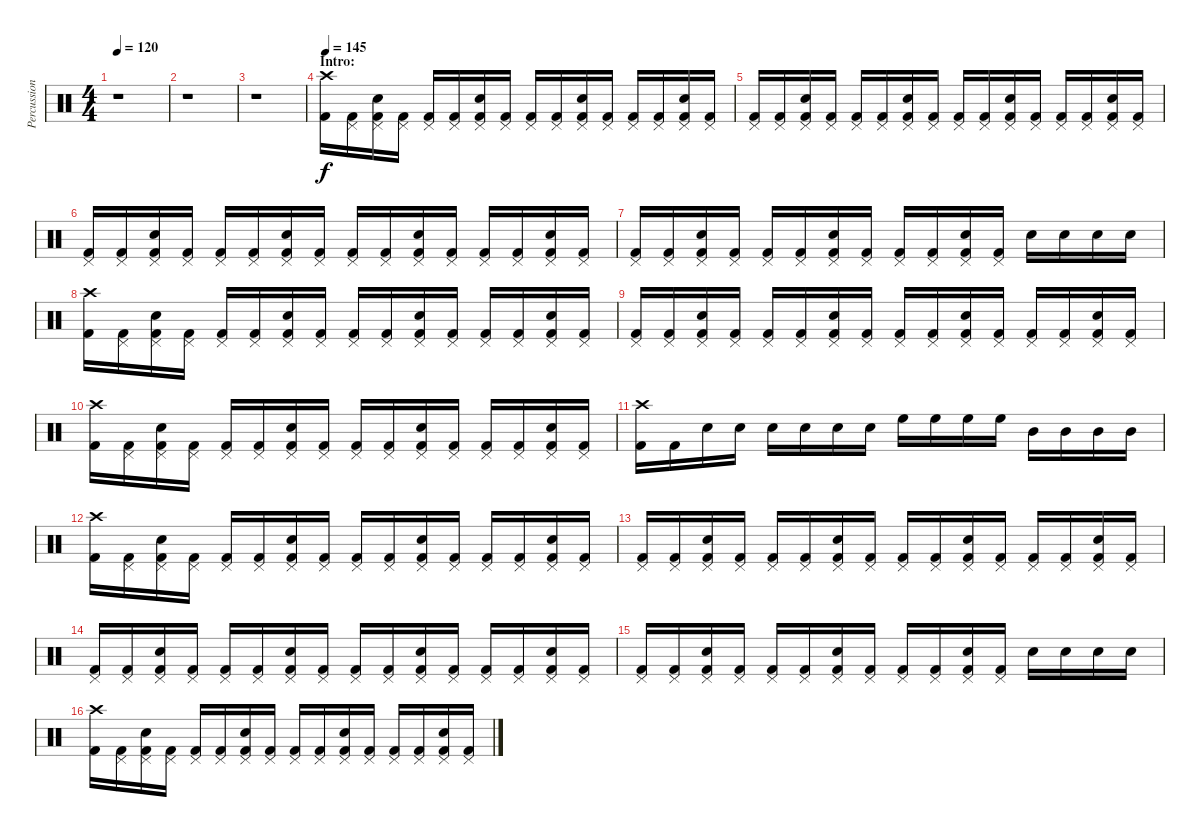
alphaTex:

\track ("Percussion" "Percussion") {instrument percussion}
\staff {score}
\articulation defaults
\ts (4 4)
\tempo 120
\clef neutral
\ks c
r.1{dy f} |
r.1 |
r.1 |
\section ("" "Intro:")
\tempo 145
("Crash high (hit)" "Kick (hit) 2").16 ("Pedal Hi-Hat (hit)" "Kick (hit) 2").16 ("Pedal Hi-Hat (hit)" "Snare (hit) 2" "Kick (hit) 2").16 ("Pedal Hi-Hat (hit)" "Kick (hit) 2").16 ("Pedal Hi-Hat (hit)" "Kick (hit) 2").16 ("Pedal Hi-Hat (hit)" "Kick (hit) 2").16 ("Pedal Hi-Hat (hit)" "Snare (hit) 2" "Kick (hit) 2").16 ("Pedal Hi-Hat (hit)" "Kick (hit) 2").16 ("Pedal Hi-Hat (hit)" "Kick (hit) 2").16 ("Pedal Hi-Hat (hit)" "Kick (hit) 2").16 ("Pedal Hi-Hat (hit)" "Snare (hit) 2" "Kick (hit) 2").16 ("Pedal Hi-Hat (hit)" "Kick (hit) 2").16 ("Pedal Hi-Hat (hit)" "Kick (hit) 2").16 ("Pedal Hi-Hat (hit)" "Kick (hit) 2").16 ("Pedal Hi-Hat (hit)" "Snare (hit) 2" "Kick (hit) 2").16 ("Pedal Hi-Hat (hit)" "Kick (hit) 2").16 |
("Pedal Hi-Hat (hit)" "Kick (hit) 2").16 ("Pedal Hi-Hat (hit)" "Kick (hit) 2").16 ("Pedal Hi-Hat (hit)" "Snare (hit) 2" "Kick (hit) 2").16 ("Pedal Hi-Hat (hit)" "Kick (hit) 2").16 ("Pedal Hi-Hat (hit)" "Kick (hit) 2").16 ("Pedal Hi-Hat (hit)" "Kick (hit) 2").16 ("Pedal Hi-Hat (hit)" "Snare (hit) 2" "Kick (hit) 2").16 ("Pedal Hi-Hat (hit)" "Kick (hit) 2").16 ("Pedal Hi-Hat (hit)" "Kick (hit) 2").16 ("Pedal Hi-Hat (hit)" "Kick (hit) 2").16 ("Pedal Hi-Hat (hit)" "Snare (hit) 2" "Kick (hit) 2").16 ("Pedal Hi-Hat (hit)" "Kick (hit) 2").16 ("Pedal Hi-Hat (hit)" "Kick (hit) 2").16 ("Pedal Hi-Hat (hit)" "Kick (hit) 2").16 ("Pedal Hi-Hat (hit)" "Snare (hit) 2" "Kick (hit) 2").16 ("Pedal Hi-Hat (hit)" "Kick (hit) 2").16 |
("Pedal Hi-Hat (hit)" "Kick (hit) 2").16 ("Pedal Hi-Hat (hit)" "Kick (hit) 2").16 ("Pedal Hi-Hat (hit)" "Snare (hit) 2" "Kick (hit) 2").16 ("Pedal Hi-Hat (hit)" "Kick (hit) 2").16 ("Pedal Hi-Hat (hit)" "Kick (hit) 2").16 ("Pedal Hi-Hat (hit)" "Kick (hit) 2").16 ("Pedal Hi-Hat (hit)" "Snare (hit) 2" "Kick (hit) 2").16 ("Pedal Hi-Hat (hit)" "Kick (hit) 2").16 ("Pedal Hi-Hat (hit)" "Kick (hit) 2").16 ("Pedal Hi-Hat (hit)" "Kick (hit) 2").16 ("Pedal Hi-Hat (hit)" "Snare (hit) 2" "Kick (hit) 2").16 ("Pedal Hi-Hat (hit)" "Kick (hit) 2").16 ("Pedal Hi-Hat (hit)" "Kick (hit) 2").16 ("Pedal Hi-Hat (hit)" "Kick (hit) 2").16 ("Pedal Hi-Hat (hit)" "Snare (hit) 2" "Kick (hit) 2").16 ("Pedal Hi-Hat (hit)" "Kick (hit) 2").16 |
("Pedal Hi-Hat (hit)" "Kick (hit) 2").16 ("Pedal Hi-Hat (hit)" "Kick (hit) 2").16 ("Pedal Hi-Hat (hit)" "Snare (hit) 2" "Kick (hit) 2").16 ("Pedal Hi-Hat (hit)" "Kick (hit) 2").16 ("Pedal Hi-Hat (hit)" "Kick (hit) 2").16 ("Pedal Hi-Hat (hit)" "Kick (hit) 2").16 ("Pedal Hi-Hat (hit)" "Snare (hit) 2" "Kick (hit) 2").16 ("Pedal Hi-Hat (hit)" "Kick (hit) 2").16 ("Pedal Hi-Hat (hit)" "Kick (hit) 2").16 ("Pedal Hi-Hat (hit)" "Kick (hit) 2").16 ("Pedal Hi-Hat (hit)" "Snare (hit) 2" "Kick (hit) 2").16 ("Pedal Hi-Hat (hit)" "Kick (hit) 2").16 "Snare (hit) 2".16 "Snare (hit) 2".16 "Snare (hit) 2".16 "Snare (hit) 2".16 |
("Crash high (hit)" "Kick (hit) 2").16 ("Pedal Hi-Hat (hit)" "Kick (hit) 2").16 ("Pedal Hi-Hat (hit)" "Snare (hit) 2" "Kick (hit) 2").16 ("Pedal Hi-Hat (hit)" "Kick (hit) 2").16 ("Pedal Hi-Hat (hit)" "Kick (hit) 2").16 ("Pedal Hi-Hat (hit)" "Kick (hit) 2").16 ("Pedal Hi-Hat (hit)" "Snare (hit) 2" "Kick (hit) 2").16 ("Pedal Hi-Hat (hit)" "Kick (hit) 2").16 ("Pedal Hi-Hat (hit)" "Kick (hit) 2").16 ("Pedal Hi-Hat (hit)" "Kick (hit) 2").16 ("Pedal Hi-Hat (hit)" "Snare (hit) 2" "Kick (hit) 2").16 ("Pedal Hi-Hat (hit)" "Kick (hit) 2").16 ("Pedal Hi-Hat (hit)" "Kick (hit) 2").16 ("Pedal Hi-Hat (hit)" "Kick (hit) 2").16 ("Pedal Hi-Hat (hit)" "Snare (hit) 2" "Kick (hit) 2").16 ("Pedal Hi-Hat (hit)" "Kick (hit) 2").16 |
("Pedal Hi-Hat (hit)" "Kick (hit) 2").16 ("Pedal Hi-Hat (hit)" "Kick (hit) 2").16 ("Pedal Hi-Hat (hit)" "Snare (hit) 2" "Kick (hit) 2").16 ("Pedal Hi-Hat (hit)" "Kick (hit) 2").16 ("Pedal Hi-Hat (hit)" "Kick (hit) 2").16 ("Pedal Hi-Hat (hit)" "Kick (hit) 2").16 ("Pedal Hi-Hat (hit)" "Snare (hit) 2" "Kick (hit) 2").16 ("Pedal Hi-Hat (hit)" "Kick (hit) 2").16 ("Pedal Hi-Hat (hit)" "Kick (hit) 2").16 ("Pedal Hi-Hat (hit)" "Kick (hit) 2").16 ("Pedal Hi-Hat (hit)" "Snare (hit) 2" "Kick (hit) 2").16 ("Pedal Hi-Hat (hit)" "Kick (hit) 2").16 ("Pedal Hi-Hat (hit)" "Kick (hit) 2").16 ("Pedal Hi-Hat (hit)" "Kick (hit) 2").16 ("Pedal Hi-Hat (hit)" "Snare (hit) 2" "Kick (hit) 2").16 ("Pedal Hi-Hat (hit)" "Kick (hit) 2").16 |
("Crash high (hit)" "Kick (hit) 2").16 ("Pedal Hi-Hat (hit)" "Kick (hit) 2").16 ("Pedal Hi-Hat (hit)" "Snare (hit) 2" "Kick (hit) 2").16 ("Pedal Hi-Hat (hit)" "Kick (hit) 2").16 ("Pedal Hi-Hat (hit)" "Kick (hit) 2").16 ("Pedal Hi-Hat (hit)" "Kick (hit) 2").16 ("Pedal Hi-Hat (hit)" "Snare (hit) 2" "Kick (hit) 2").16 ("Pedal Hi-Hat (hit)" "Kick (hit) 2").16 ("Pedal Hi-Hat (hit)" "Kick (hit) 2").16 ("Pedal Hi-Hat (hit)" "Kick (hit) 2").16 ("Pedal Hi-Hat (hit)" "Snare (hit) 2" "Kick (hit) 2").16 ("Pedal Hi-Hat (hit)" "Kick (hit) 2").16 ("Pedal Hi-Hat (hit)" "Kick (hit) 2").16 ("Pedal Hi-Hat (hit)" "Kick (hit) 2").16 ("Pedal Hi-Hat (hit)" "Snare (hit) 2" "Kick (hit) 2").16 ("Pedal Hi-Hat (hit)" "Kick (hit) 2").16 |
("Crash high (hit)" "Kick (hit) 2").16 "Kick (hit) 2".16 "Snare (hit) 2".16 "Snare (hit) 2".16 "Snare (hit) 2".16 "Snare (hit) 2".16 "Snare (hit) 2".16 "Snare (hit) 2".16 "High Floor Tom (hit)".16 "High Floor Tom (hit)".16 "High Floor Tom (hit)".16 "High Floor Tom (hit)".16 "Mid Tom (hit)".16 "Mid Tom (hit)".16 "Mid Tom (hit)".16 "Mid Tom (hit)".16 |
("Crash high (hit)" "Kick (hit) 2").16 ("Pedal Hi-Hat (hit)" "Kick (hit) 2").16 ("Pedal Hi-Hat (hit)" "Snare (hit) 2" "Kick (hit) 2").16 ("Pedal Hi-Hat (hit)" "Kick (hit) 2").16 ("Pedal Hi-Hat (hit)" "Kick (hit) 2").16 ("Pedal Hi-Hat (hit)" "Kick (hit) 2").16 ("Pedal Hi-Hat (hit)" "Snare (hit) 2" "Kick (hit) 2").16 ("Pedal Hi-Hat (hit)" "Kick (hit) 2").16 ("Pedal Hi-Hat (hit)" "Kick (hit) 2").16 ("Pedal Hi-Hat (hit)" "Kick (hit) 2").16 ("Pedal Hi-Hat (hit)" "Snare (hit) 2" "Kick (hit) 2").16 ("Pedal Hi-Hat (hit)" "Kick (hit) 2").16 ("Pedal Hi-Hat (hit)" "Kick (hit) 2").16 ("Pedal Hi-Hat (hit)" "Kick (hit) 2").16 ("Pedal Hi-Hat (hit)" "Snare (hit) 2" "Kick (hit) 2").16 ("Pedal Hi-Hat (hit)" "Kick (hit) 2").16 |
("Pedal Hi-Hat (hit)" "Kick (hit) 2").16 ("Pedal Hi-Hat (hit)" "Kick (hit) 2").16 ("Pedal Hi-Hat (hit)" "Snare (hit) 2" "Kick (hit) 2").16 ("Pedal Hi-Hat (hit)" "Kick (hit) 2").16 ("Pedal Hi-Hat (hit)" "Kick (hit) 2").16 ("Pedal Hi-Hat (hit)" "Kick (hit) 2").16 ("Pedal Hi-Hat (hit)" "Snare (hit) 2" "Kick (hit) 2").16 ("Pedal Hi-Hat (hit)" "Kick (hit) 2").16 ("Pedal Hi-Hat (hit)" "Kick (hit) 2").16 ("Pedal Hi-Hat (hit)" "Kick (hit) 2").16 ("Pedal Hi-Hat (hit)" "Snare (hit) 2" "Kick (hit) 2").16 ("Pedal Hi-Hat (hit)" "Kick (hit) 2").16 ("Pedal Hi-Hat (hit)" "Kick (hit) 2").16 ("Pedal Hi-Hat (hit)" "Kick (hit) 2").16 ("Pedal Hi-Hat (hit)" "Snare (hit) 2" "Kick (hit) 2").16 ("Pedal Hi-Hat (hit)" "Kick (hit) 2").16 |
("Pedal Hi-Hat (hit)" "Kick (hit) 2").16 ("Pedal Hi-Hat (hit)" "Kick (hit) 2").16 ("Pedal Hi-Hat (hit)" "Snare (hit) 2" "Kick (hit) 2").16 ("Pedal Hi-Hat (hit)" "Kick (hit) 2").16 ("Pedal Hi-Hat (hit)" "Kick (hit) 2").16 ("Pedal Hi-Hat (hit)" "Kick (hit) 2").16 ("Pedal Hi-Hat (hit)" "Snare (hit) 2" "Kick (hit) 2").16 ("Pedal Hi-Hat (hit)" "Kick (hit) 2").16 ("Pedal Hi-Hat (hit)" "Kick (hit) 2").16 ("Pedal Hi-Hat (hit)" "Kick (hit) 2").16 ("Pedal Hi-Hat (hit)" "Snare (hit) 2" "Kick (hit) 2").16 ("Pedal Hi-Hat (hit)" "Kick (hit) 2").16 ("Pedal Hi-Hat (hit)" "Kick (hit) 2").16 ("Pedal Hi-Hat (hit)" "Kick (hit) 2").16 ("Pedal Hi-Hat (hit)" "Snare (hit) 2" "Kick (hit) 2").16 ("Pedal Hi-Hat (hit)" "Kick (hit) 2").16 |
("Pedal Hi-Hat (hit)" "Kick (hit) 2").16 ("Pedal Hi-Hat (hit)" "Kick (hit) 2").16 ("Pedal Hi-Hat (hit)" "Snare (hit) 2" "Kick (hit) 2").16 ("Pedal Hi-Hat (hit)" "Kick (hit) 2").16 ("Pedal Hi-Hat (hit)" "Kick (hit) 2").16 ("Pedal Hi-Hat (hit)" "Kick (hit) 2").16 ("Pedal Hi-Hat (hit)" "Snare (hit) 2" "Kick (hit) 2").16 ("Pedal Hi-Hat (hit)" "Kick (hit) 2").16 ("Pedal Hi-Hat (hit)" "Kick (hit) 2").16 ("Pedal Hi-Hat (hit)" "Kick (hit) 2").16 ("Pedal Hi-Hat (hit)" "Snare (hit) 2" "Kick (hit) 2").16 ("Pedal Hi-Hat (hit)" "Kick (hit) 2").16 "Snare (hit) 2".16 "Snare (hit) 2".16 "Snare (hit) 2".16 "Snare (hit) 2".16 |
("Crash high (hit)" "Kick (hit) 2").16 ("Pedal Hi-Hat (hit)" "Kick (hit) 2").16 ("Pedal Hi-Hat (hit)" "Snare (hit) 2" "Kick (hit) 2").16 ("Pedal Hi-Hat (hit)" "Kick (hit) 2").16 ("Pedal Hi-Hat (hit)" "Kick (hit) 2").16 ("Pedal Hi-Hat (hit)" "Kick (hit) 2").16 ("Pedal Hi-Hat (hit)" "Snare (hit) 2" "Kick (hit) 2").16 ("Pedal Hi-Hat (hit)" "Kick (hit) 2").16 ("Pedal Hi-Hat (hit)" "Kick (hit) 2").16 ("Pedal Hi-Hat (hit)" "Kick (hit) 2").16 ("Pedal Hi-Hat (hit)" "Snare (hit) 2" "Kick (hit) 2").16 ("Pedal Hi-Hat (hit)" "Kick (hit) 2").16 ("Pedal Hi-Hat (hit)" "Kick (hit) 2").16 ("Pedal Hi-Hat (hit)" "Kick (hit) 2").16 ("Pedal Hi-Hat (hit)" "Snare (hit) 2" "Kick (hit) 2").16 ("Pedal Hi-Hat (hit)" "Kick (hit) 2").16
